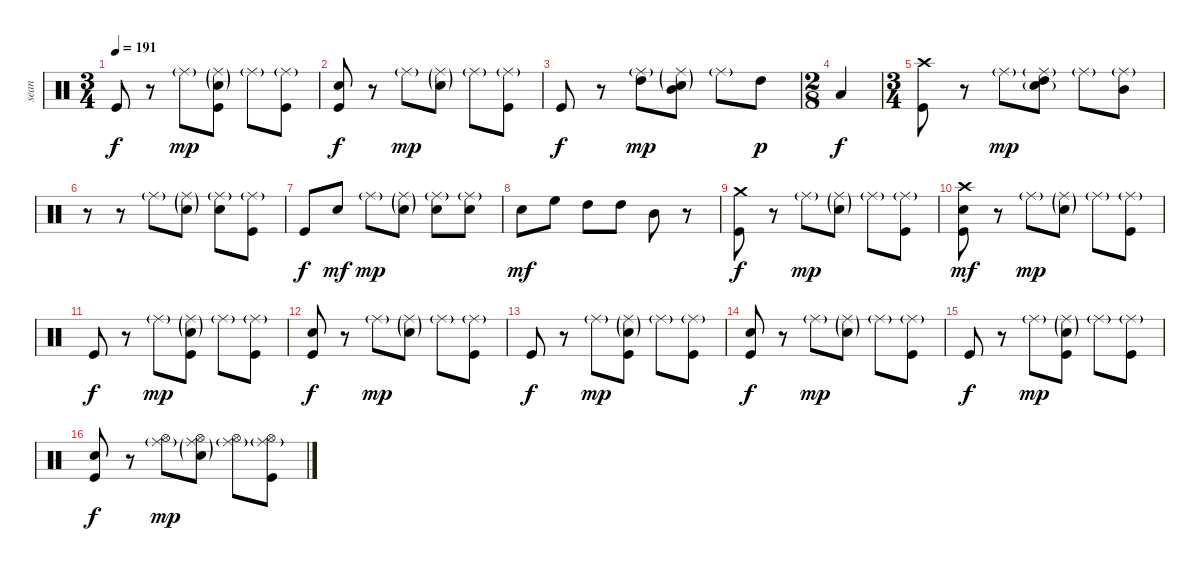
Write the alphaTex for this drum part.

\track ("sean" "sean") {instrument percussion}
\staff {score}
\articulation defaults
\ts (3 4)
\tempo 191
\clef neutral
\ks c "Kick (hit)".8{dy f}
r.8 "Ride (middle)"{g}.8{dy mp} ("Electric Snare (hit)"{g} "Ride (middle)"{g} "Kick (hit)").8 "Ride (middle)"{g}.8 ("Kick (hit)" "Ride (middle)"{g}).8 |
("Electric Snare (hit)" "Kick (hit)").8{dy f} r.8 "Ride (middle)"{g}.8{dy mp} ("Electric Snare (hit)"{g} "Ride (middle)"{g}).8 "Ride (middle)"{g}.8 ("Kick (hit)" "Ride (middle)"{g}).8 |
"Kick (hit)".8{dy f} r.8 ("High Tom (hit)" "Ride (middle)"{g}).8{dy mp} ("Electric Snare (hit)"{g} "Ride (middle)"{g} "Mid Tom (hit)").8 "Ride (middle)"{g}.8 "High Tom (hit)".8{dy p} |
\ts (2 8)
"Low Tom (hit)".4{dy f} |
\ts (3 4)
("Crash high (hit)" "Kick (hit)").8 r.8 "Ride (middle)"{g}.8{dy mp} ("High Tom (hit)" "Electric Snare (hit)"{g} "Ride (middle)"{g}).8 "Ride (middle)"{g}.8 ("Mid Tom (hit)" "Ride (middle)"{g}).8 |
r.8 r.8 "Ride (middle)"{g}.8 ("Electric Snare (hit)"{g} "Ride (middle)"{g}).8 ("Electric Snare (hit)" "Ride (middle)"{g}).8 ("Kick (hit)" "Ride (middle)"{g}).8 |
"Kick (hit)".8{dy f} "Electric Snare (hit)".8{dy mf} "Ride (middle)"{g}.8{dy mp} ("Electric Snare (hit)"{g} "Ride (middle)"{g}).8 ("Electric Snare (hit)" "Ride (middle)"{g}).8 ("Electric Snare (hit)" "Ride (middle)"{g}).8 |
"Electric Snare (hit)".8{dy mf} "High Floor Tom (hit)".8 "High Tom (hit)".8 "High Tom (hit)".8 "Mid Tom (hit)".8 r.8 |
("Crash medium (hit)" "Kick (hit)").8{dy f} r.8 "Ride (middle)"{g}.8{dy mp} ("Electric Snare (hit)"{g} "Ride (middle)"{g}).8 "Ride (middle)"{g}.8 ("Kick (hit)" "Ride (middle)"{g}).8 |
("Crash high (hit)" "Electric Snare (hit)" "Kick (hit)").8{dy mf} r.8 "Ride (middle)"{g}.8{dy mp} ("Electric Snare (hit)"{g} "Ride (middle)"{g}).8 "Ride (middle)"{g}.8 ("Kick (hit)" "Ride (middle)"{g}).8 |
"Kick (hit)".8{dy f} r.8 "Ride (middle)"{g}.8{dy mp} ("Electric Snare (hit)"{g} "Ride (middle)"{g} "Kick (hit)").8 "Ride (middle)"{g}.8 ("Kick (hit)" "Ride (middle)"{g}).8 |
("Electric Snare (hit)" "Kick (hit)").8{dy f} r.8 "Ride (middle)"{g}.8{dy mp} ("Electric Snare (hit)"{g} "Ride (middle)"{g}).8 "Ride (middle)"{g}.8 ("Kick (hit)" "Ride (middle)"{g}).8 |
"Kick (hit)".8{dy f} r.8 "Ride (middle)"{g}.8{dy mp} ("Electric Snare (hit)"{g} "Ride (middle)"{g} "Kick (hit)").8 "Ride (middle)"{g}.8 ("Kick (hit)" "Ride (middle)"{g}).8 |
("Electric Snare (hit)" "Kick (hit)").8{dy f} r.8 "Ride (middle)"{g}.8{dy mp} ("Electric Snare (hit)"{g} "Ride (middle)"{g}).8 "Ride (middle)"{g}.8 ("Kick (hit)" "Ride (middle)"{g}).8 |
"Kick (hit)".8{dy f} r.8 "Ride (middle)"{g}.8{dy mp} ("Electric Snare (hit)"{g} "Ride (middle)"{g} "Kick (hit)").8 "Ride (middle)"{g}.8 ("Kick (hit)" "Ride (middle)"{g}).8 |
("Electric Snare (hit)" "Kick (hit)").8{dy f} r.8 ("Hi-Hat (open)" "Ride (middle)"{g}).8{dy mp} ("Hi-Hat (open)" "Electric Snare (hit)"{g} "Ride (middle)"{g}).8 ("Hi-Hat (open)" "Ride (middle)"{g}).8 ("Hi-Hat (open)" "Kick (hit)" "Ride (middle)"{g}).8
